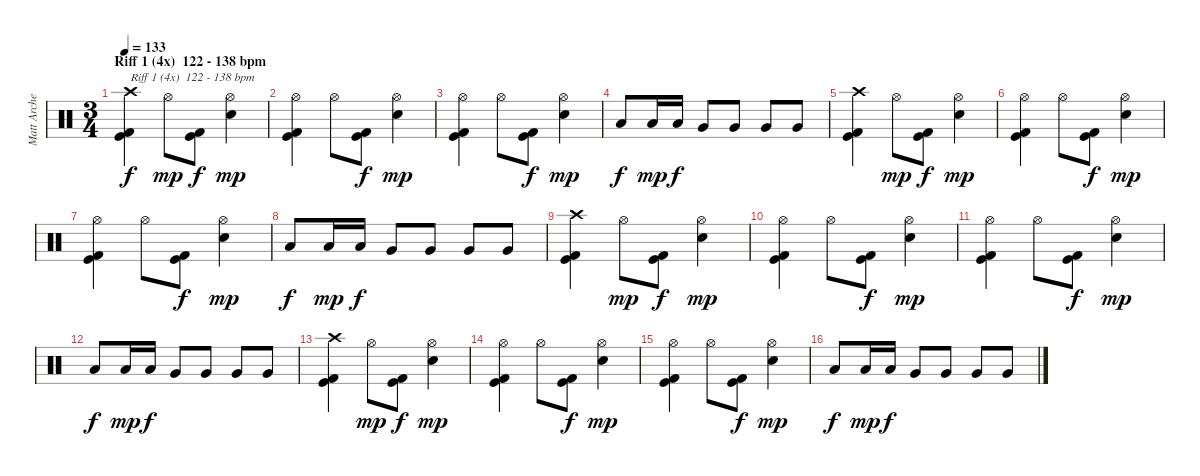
\track ("Matt Archer" "Matt Arche") {instrument percussion}
\staff {score}
\articulation defaults
\ts (3 4)
\section ("" "Riff 1 (4x)  122 - 138 bpm")
\tempo 133
\clef neutral
\ks c
("Kick (hit)" "Kick (hit) 2" "Crash high (hit)").4{txt "Riff 1 (4x)  122 - 138 bpm" dy f} "Hi-Hat (open)".8{dy mp} ("Kick (hit)" "Kick (hit) 2").8{dy f} ("Electric Snare (hit)" "Hi-Hat (open)").4{dy mp} |
("Kick (hit)" "Kick (hit) 2" "Hi-Hat (open)").4 "Hi-Hat (open)".8 ("Kick (hit)" "Kick (hit) 2").8{dy f} ("Electric Snare (hit)" "Hi-Hat (open)").4{dy mp} |
("Kick (hit)" "Kick (hit) 2" "Hi-Hat (open)").4 "Hi-Hat (open)".8 ("Kick (hit)" "Kick (hit) 2").8{dy f} ("Electric Snare (hit)" "Hi-Hat (open)").4{dy mp} |
"Low Tom (hit)".8{dy f} "Low Tom (hit)".16{dy mp} "Low Tom (hit)".16{dy f} "Very Low Tom (hit)".8 "Very Low Tom (hit)".8 "Very Low Tom (hit)".8 "Very Low Tom (hit)".8 |
("Kick (hit)" "Kick (hit) 2" "Crash high (hit)").4 "Hi-Hat (open)".8{dy mp} ("Kick (hit)" "Kick (hit) 2").8{dy f} ("Electric Snare (hit)" "Hi-Hat (open)").4{dy mp} |
("Kick (hit)" "Kick (hit) 2" "Hi-Hat (open)").4 "Hi-Hat (open)".8 ("Kick (hit)" "Kick (hit) 2").8{dy f} ("Electric Snare (hit)" "Hi-Hat (open)").4{dy mp} |
("Kick (hit)" "Kick (hit) 2" "Hi-Hat (open)").4 "Hi-Hat (open)".8 ("Kick (hit)" "Kick (hit) 2").8{dy f} ("Electric Snare (hit)" "Hi-Hat (open)").4{dy mp} |
"Low Tom (hit)".8{dy f} "Low Tom (hit)".16{dy mp} "Low Tom (hit)".16{dy f} "Very Low Tom (hit)".8 "Very Low Tom (hit)".8 "Very Low Tom (hit)".8 "Very Low Tom (hit)".8 |
("Kick (hit)" "Kick (hit) 2" "Crash high (hit)").4 "Hi-Hat (open)".8{dy mp} ("Kick (hit)" "Kick (hit) 2").8{dy f} ("Electric Snare (hit)" "Hi-Hat (open)").4{dy mp} |
("Kick (hit)" "Kick (hit) 2" "Hi-Hat (open)").4 "Hi-Hat (open)".8 ("Kick (hit)" "Kick (hit) 2").8{dy f} ("Electric Snare (hit)" "Hi-Hat (open)").4{dy mp} |
("Kick (hit)" "Kick (hit) 2" "Hi-Hat (open)").4 "Hi-Hat (open)".8 ("Kick (hit)" "Kick (hit) 2").8{dy f} ("Electric Snare (hit)" "Hi-Hat (open)").4{dy mp} |
"Low Tom (hit)".8{dy f} "Low Tom (hit)".16{dy mp} "Low Tom (hit)".16{dy f} "Very Low Tom (hit)".8 "Very Low Tom (hit)".8 "Very Low Tom (hit)".8 "Very Low Tom (hit)".8 |
("Kick (hit)" "Kick (hit) 2" "Crash high (hit)").4 "Hi-Hat (open)".8{dy mp} ("Kick (hit)" "Kick (hit) 2").8{dy f} ("Electric Snare (hit)" "Hi-Hat (open)").4{dy mp} |
("Kick (hit)" "Kick (hit) 2" "Hi-Hat (open)").4 "Hi-Hat (open)".8 ("Kick (hit)" "Kick (hit) 2").8{dy f} ("Electric Snare (hit)" "Hi-Hat (open)").4{dy mp} |
("Kick (hit)" "Kick (hit) 2" "Hi-Hat (open)").4 "Hi-Hat (open)".8 ("Kick (hit)" "Kick (hit) 2").8{dy f} ("Electric Snare (hit)" "Hi-Hat (open)").4{dy mp} |
"Low Tom (hit)".8{dy f} "Low Tom (hit)".16{dy mp} "Low Tom (hit)".16{dy f} "Very Low Tom (hit)".8 "Very Low Tom (hit)".8 "Very Low Tom (hit)".8 "Very Low Tom (hit)".8
